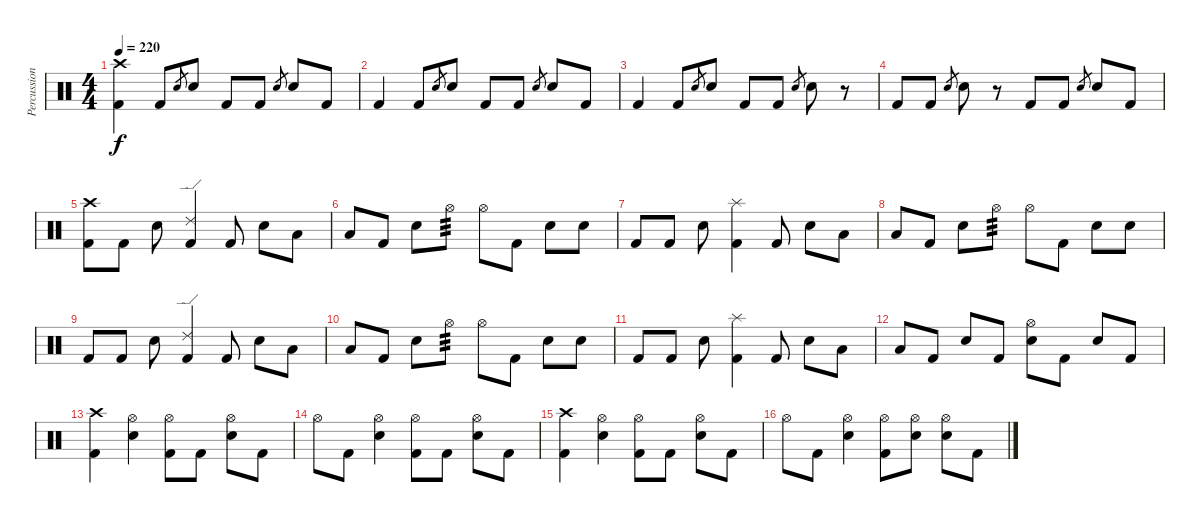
\track ("Percussion" "Percussion") {instrument percussion}
\staff {score}
\articulation defaults
\ts (4 4)
\tempo 220
\clef neutral
\ks c
("Crash high (hit)" "Kick (hit) 2").4{dy f} "Kick (hit) 2".8 "Electric Snare (hit)".8{gr} "Electric Snare (hit)".8 "Kick (hit) 2".8 "Kick (hit) 2".8 "Electric Snare (hit)".8{gr} "Electric Snare (hit)".8 "Kick (hit) 2".8 |
"Kick (hit) 2".4 "Kick (hit) 2".8 "Electric Snare (hit)".8{gr} "Electric Snare (hit)".8 "Kick (hit) 2".8 "Kick (hit) 2".8 "Electric Snare (hit)".8{gr} "Electric Snare (hit)".8 "Kick (hit) 2".8 |
"Kick (hit) 2".4 "Kick (hit) 2".8 "Electric Snare (hit)".8{gr} "Electric Snare (hit)".8 "Kick (hit) 2".8 "Kick (hit) 2".8 "Electric Snare (hit)".8{gr} "Electric Snare (hit)".8 r.8 |
"Kick (hit) 2".8 "Kick (hit) 2".8 "Electric Snare (hit)".8{gr} "Electric Snare (hit)".8 r.8 "Kick (hit) 2".8 "Kick (hit) 2".8 "Electric Snare (hit)".8{gr} "Electric Snare (hit)".8 "Kick (hit) 2".8 |
("Crash high (hit)" "Kick (hit) 2").8 "Kick (hit) 2".8 "Electric Snare (hit)".8 ("Ride (edge) 2" "Kick (hit) 2").4 "Kick (hit) 2".8 "Electric Snare (hit)".8 "Low Tom (hit)".8 |
"Low Floor Tom (hit)".8 "Kick (hit) 2".8 "Electric Snare (hit)".8 "Hi-Hat (open)".8{tp 3} "Hi-Hat (open)".8 "Kick (hit) 2".8 "Electric Snare (hit)".8 "Electric Snare (hit)".8 |
"Kick (hit) 2".8 "Kick (hit) 2".8 "Electric Snare (hit)".8 ("Splash (hit)" "Kick (hit) 2").4 "Kick (hit) 2".8 "Electric Snare (hit)".8 "Low Tom (hit)".8 |
"Low Floor Tom (hit)".8 "Kick (hit) 2".8 "Electric Snare (hit)".8 "Hi-Hat (open)".8{tp 3} "Hi-Hat (open)".8 "Kick (hit) 2".8 "Electric Snare (hit)".8 "Electric Snare (hit)".8 |
"Kick (hit) 2".8 "Kick (hit) 2".8 "Electric Snare (hit)".8 ("Ride (edge) 2" "Kick (hit) 2").4 "Kick (hit) 2".8 "Electric Snare (hit)".8 "Low Tom (hit)".8 |
"Low Floor Tom (hit)".8 "Kick (hit) 2".8 "Electric Snare (hit)".8 "Hi-Hat (open)".8{tp 3} "Hi-Hat (open)".8 "Kick (hit) 2".8 "Electric Snare (hit)".8 "Electric Snare (hit)".8 |
"Kick (hit) 2".8 "Kick (hit) 2".8 "Electric Snare (hit)".8 ("Splash (hit)" "Kick (hit) 2").4 "Kick (hit) 2".8 "Electric Snare (hit)".8 "Low Tom (hit)".8 |
"Low Floor Tom (hit)".8 "Kick (hit) 2".8 "Electric Snare (hit)".8 "Kick (hit) 2".8 ("Hi-Hat (open)" "Electric Snare (hit)").8 "Kick (hit) 2".8 "Electric Snare (hit)".8 "Kick (hit) 2".8 |
("Crash high (hit)" "Kick (hit) 2").4 ("Hi-Hat (open)" "Electric Snare (hit)").4 ("Hi-Hat (open)" "Kick (hit) 2").8 "Kick (hit) 2".8 ("Hi-Hat (open)" "Electric Snare (hit)").8 "Kick (hit) 2".8 |
"Hi-Hat (open)".8 "Kick (hit) 2".8 ("Hi-Hat (open)" "Electric Snare (hit)").4 ("Hi-Hat (open)" "Kick (hit) 2").8 "Kick (hit) 2".8 ("Hi-Hat (open)" "Electric Snare (hit)").8 "Kick (hit) 2".8 |
("Crash high (hit)" "Kick (hit) 2").4 ("Hi-Hat (open)" "Electric Snare (hit)").4 ("Hi-Hat (open)" "Kick (hit) 2").8 "Kick (hit) 2".8 ("Hi-Hat (open)" "Electric Snare (hit)").8 "Kick (hit) 2".8 |
"Hi-Hat (open)".8 "Kick (hit) 2".8 ("Hi-Hat (open)" "Electric Snare (hit)").4 ("Hi-Hat (open)" "Kick (hit) 2").8 ("Hi-Hat (open)" "Electric Snare (hit)").8 ("Hi-Hat (open)" "Electric Snare (hit)").8 "Kick (hit) 2".8
